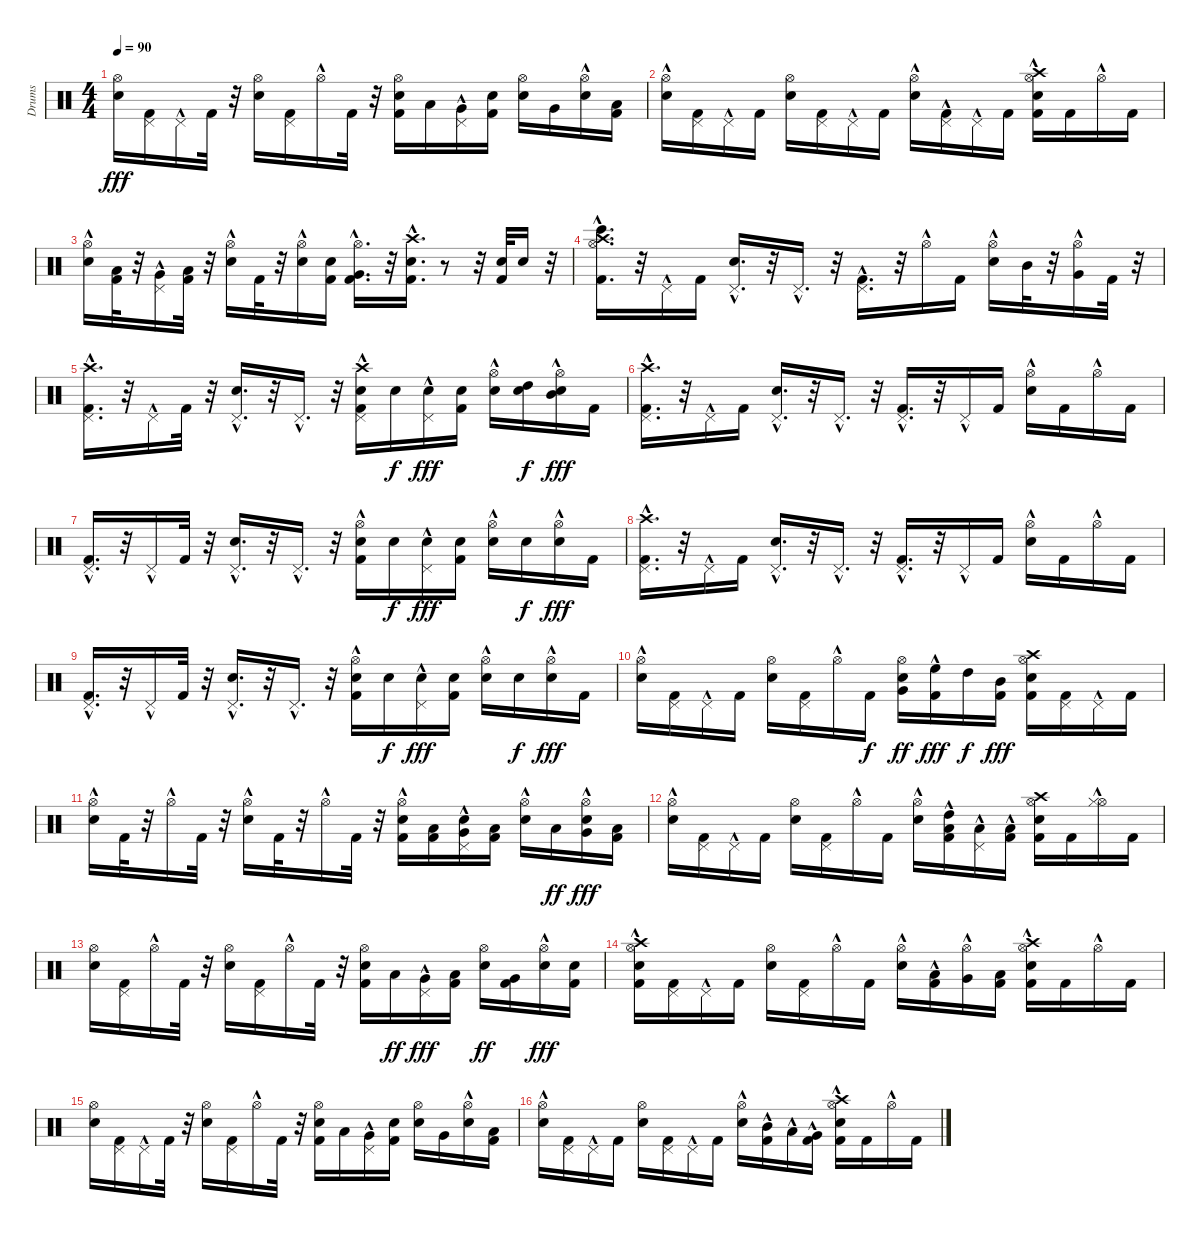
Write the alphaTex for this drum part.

\track ("Drums" "Drums") {instrument percussion}
\staff {score}
\articulation defaults
\ts (4 4)
\tempo 90
\clef neutral
\ks c
("Hi-Hat (open)" "Electric Snare (hit)").16{dy fff} ("Pedal Hi-Hat (hit)" "Kick (hit) 2").16 "Pedal Hi-Hat (hit)"{hac}.16 "Kick (hit) 2".32 r.32 ("Hi-Hat (open)" "Electric Snare (hit)").16 ("Pedal Hi-Hat (hit)" "Kick (hit) 2").16 "Hi-Hat (open)"{hac}.16 "Kick (hit) 2".32 r.32 ("Hi-Hat (open)" "Kick (hit) 2" "Electric Snare (hit)").16 "Low Tom (hit)".16 ("Pedal Hi-Hat (hit)"{hac} "Very Low Tom (hit)").16 ("Electric Snare (hit)" "Kick (hit) 2").16 ("Hi-Hat (open)" "Electric Snare (hit)").16 "Very Low Tom (hit)".16 ("Hi-Hat (open)"{hac} "Electric Snare (hit)").16 ("Low Floor Tom (hit)" "Kick (hit) 2").16 |
("Hi-Hat (open)" "Electric Snare (hit)"{hac}).16 ("Pedal Hi-Hat (hit)" "Kick (hit) 2").16 "Pedal Hi-Hat (hit)"{hac}.16 "Kick (hit) 2".16 ("Electric Snare (hit)" "Hi-Hat (open)").16 ("Pedal Hi-Hat (hit)" "Kick (hit) 2").16 "Pedal Hi-Hat (hit)"{hac}.16 "Kick (hit) 2".16 ("Electric Snare (hit)"{hac} "Hi-Hat (open)").16 ("Pedal Hi-Hat (hit)" "Kick (hit) 2"{hac}).16 "Pedal Hi-Hat (hit)"{hac}.16 "Kick (hit) 2".16 ("Kick (hit) 2" "Crash high (hit)" "Hi-Hat (open)"{hac} "Electric Snare (hit)").16 "Kick (hit) 2".16 "Hi-Hat (open)"{hac}.16 "Kick (hit) 2".16 |
("Hi-Hat (open)"{hac} "Electric Snare (hit)").16 ("Kick (hit) 2" "Low Tom (hit)").32 r.32 ("Very Low Tom (hit)" "Pedal Hi-Hat (hit)"{hac}).16 ("Kick (hit) 2" "Low Floor Tom (hit)").32 r.32 ("Hi-Hat (open)"{hac} "Electric Snare (hit)").16 "Kick (hit) 2".32 r.32 ("Electric Snare (hit)" "Hi-Hat (open)"{hac}).16 ("Electric Snare (hit)" "Kick (hit) 2").16 ("Hi-Hat (open)"{hac} "Very Low Tom (hit)" "Kick (hit) 2").16{d} r.32 ("Crash high (hit)"{hac} "Kick (hit) 2"{hac} "Electric Snare (hit)"{hac}).16{d} r.8 r.32 ("Kick (hit) 2" "Electric Snare (hit)").32 "Electric Snare (hit)".16 r.32 |
("Bongo High (hit)" "Crash high (hit)" "Kick (hit) 2"{hac} "Hi-Hat (open)"{hac}).16{d} r.32 "Pedal Hi-Hat (hit)"{hac}.16 "Kick (hit) 2".16 ("Electric Snare (hit)"{hac} "Pedal Hi-Hat (hit)"{hac}).16{d} r.32 "Pedal Hi-Hat (hit)"{hac}.16{d} r.32 ("Kick (hit) 2"{hac} "Pedal Hi-Hat (hit)"{hac}).16{d} r.32 "Hi-Hat (open)"{hac}.16 "Kick (hit) 2".16 ("Electric Snare (hit)" "Hi-Hat (open)"{hac}).16 "Mid Tom (hit)".32 r.32 ("Hi-Hat (open)"{hac} "Very Low Tom (hit)").16 "Kick (hit) 2".32 r.32 |
("Crash high (hit)" "Kick (hit) 2" "Pedal Hi-Hat (hit)"{hac}).16{d} r.32 "Pedal Hi-Hat (hit)"{hac}.16 "Kick (hit) 2".32 r.32 ("Electric Snare (hit)" "Pedal Hi-Hat (hit)"{hac}).16{d} r.32 "Pedal Hi-Hat (hit)"{hac}.16{d} r.32 ("Electric Snare (hit)" "Crash high (hit)" "Kick (hit) 2" "Pedal Hi-Hat (hit)"{hac}).16 "Electric Snare (hit)".16{dy f} ("Electric Snare (hit)" "Pedal Hi-Hat (hit)"{hac}).16{dy fff} ("Electric Snare (hit)" "Kick (hit) 2").16 ("Electric Snare (hit)" "Hi-Hat (open)"{hac}).16 ("High Tom (hit)" "Electric Snare (hit)").16{dy f} ("Mid Tom (hit)" "Electric Snare (hit)" "Hi-Hat (open)"{hac}).16{dy fff} "Kick (hit) 2".16 |
("Crash high (hit)" "Kick (hit) 2" "Pedal Hi-Hat (hit)"{hac}).16{d} r.32 "Pedal Hi-Hat (hit)"{hac}.16 "Kick (hit) 2".16 ("Electric Snare (hit)" "Pedal Hi-Hat (hit)"{hac}).16{d} r.32 "Pedal Hi-Hat (hit)"{hac}.16{d} r.32 ("Pedal Hi-Hat (hit)"{hac} "Kick (hit) 2"{hac}).16{d} r.32 "Pedal Hi-Hat (hit)"{hac}.16 "Kick (hit) 2".16 ("Hi-Hat (open)"{hac} "Electric Snare (hit)").16 "Kick (hit) 2".16 "Hi-Hat (open)"{hac}.16 "Kick (hit) 2".16 |
("Pedal Hi-Hat (hit)"{hac} "Kick (hit) 2").16{d} r.32 "Pedal Hi-Hat (hit)"{hac}.16 "Kick (hit) 2".32 r.32 ("Pedal Hi-Hat (hit)"{hac} "Electric Snare (hit)").16{d} r.32 "Pedal Hi-Hat (hit)"{hac}.16{d} r.32 ("Hi-Hat (open)"{hac} "Electric Snare (hit)" "Kick (hit) 2").16 "Electric Snare (hit)".16{dy f} ("Pedal Hi-Hat (hit)"{hac} "Electric Snare (hit)").16{dy fff} ("Electric Snare (hit)" "Kick (hit) 2").16 ("Hi-Hat (open)"{hac} "Electric Snare (hit)").16 "Electric Snare (hit)".16{dy f} ("Hi-Hat (open)"{hac} "Electric Snare (hit)").16{dy fff} "Kick (hit) 2".16 |
("Crash high (hit)" "Kick (hit) 2" "Pedal Hi-Hat (hit)"{hac}).16{d} r.32 "Pedal Hi-Hat (hit)"{hac}.16 "Kick (hit) 2".16 ("Electric Snare (hit)" "Pedal Hi-Hat (hit)"{hac}).16{d} r.32 "Pedal Hi-Hat (hit)"{hac}.16{d} r.32 ("Pedal Hi-Hat (hit)"{hac} "Kick (hit) 2"{hac}).16{d} r.32 "Pedal Hi-Hat (hit)"{hac}.16 "Kick (hit) 2".16 ("Hi-Hat (open)"{hac} "Electric Snare (hit)").16 "Kick (hit) 2".16 "Hi-Hat (open)"{hac}.16 "Kick (hit) 2".16 |
("Pedal Hi-Hat (hit)"{hac} "Kick (hit) 2").16{d} r.32 "Pedal Hi-Hat (hit)"{hac}.16 "Kick (hit) 2".32 r.32 ("Pedal Hi-Hat (hit)"{hac} "Electric Snare (hit)").16{d} r.32 "Pedal Hi-Hat (hit)"{hac}.16{d} r.32 ("Hi-Hat (open)"{hac} "Electric Snare (hit)" "Kick (hit) 2").16 "Electric Snare (hit)".16{dy f} ("Pedal Hi-Hat (hit)"{hac} "Electric Snare (hit)").16{dy fff} ("Electric Snare (hit)" "Kick (hit) 2").16 ("Hi-Hat (open)"{hac} "Electric Snare (hit)").16 "Electric Snare (hit)".16{dy f} ("Hi-Hat (open)"{hac} "Electric Snare (hit)").16{dy fff} "Kick (hit) 2".16 |
("Hi-Hat (open)" "Electric Snare (hit)"{hac}).16 ("Kick (hit) 2" "Pedal Hi-Hat (hit)").16 "Pedal Hi-Hat (hit)"{hac}.16 "Kick (hit) 2".16 ("Electric Snare (hit)" "Hi-Hat (open)").16 ("Kick (hit) 2" "Pedal Hi-Hat (hit)").16 "Hi-Hat (open)"{hac}.16 "Kick (hit) 2".16{dy f} ("Electric Snare (hit)" "Hi-Hat (open)" "Very Low Tom (hit)").16{dy ff} ("Kick (hit) 2"{hac} "High Floor Tom (hit)").16{dy fff} "High Tom (hit)".16{dy f} ("Kick (hit) 2" "Mid Tom (hit)").16{dy fff} ("Kick (hit) 2" "Crash high (hit)" "Hi-Hat (open)" "Electric Snare (hit)").16 ("Kick (hit) 2" "Pedal Hi-Hat (hit)").16 "Pedal Hi-Hat (hit)"{hac}.16 "Kick (hit) 2".16 |
("Hi-Hat (open)"{hac} "Electric Snare (hit)").16 "Kick (hit) 2".32 r.32 "Hi-Hat (open)"{hac}.16 "Kick (hit) 2".32 r.32 ("Hi-Hat (open)"{hac} "Electric Snare (hit)").16 "Kick (hit) 2".32 r.32 "Hi-Hat (open)"{hac}.16 "Kick (hit) 2".32 r.32 ("Hi-Hat (open)"{hac} "Electric Snare (hit)" "Kick (hit) 2").16 ("Low Tom (hit)" "Kick (hit) 2").16 ("Electric Snare (hit)" "Pedal Hi-Hat (hit)"{hac} "Very Low Tom (hit)").16 ("Low Floor Tom (hit)" "Kick (hit) 2").16 ("Hi-Hat (open)"{hac} "Electric Snare (hit)").16 "Low Tom (hit)".16{dy ff} ("Electric Snare (hit)" "Hi-Hat (open)"{hac} "Very Low Tom (hit)").16{dy fff} ("Low Floor Tom (hit)" "Kick (hit) 2").16 |
("Hi-Hat (open)" "Electric Snare (hit)"{hac}).16 ("Pedal Hi-Hat (hit)" "Kick (hit) 2").16 "Pedal Hi-Hat (hit)"{hac}.16 "Kick (hit) 2".16 ("Electric Snare (hit)" "Hi-Hat (open)").16 ("Pedal Hi-Hat (hit)" "Kick (hit) 2").16 "Hi-Hat (open)"{hac}.16 "Kick (hit) 2".16 ("Electric Snare (hit)"{hac} "Hi-Hat (open)").16 ("High Tom (hit)"{hac} "Low Tom (hit)" "Kick (hit) 2"{hac}).16 ("Low Tom (hit)"{hac} "Pedal Hi-Hat (hit)"{hac}).16 ("Low Floor Tom (hit)"{hac} "Kick (hit) 2").16 ("Kick (hit) 2" "Crash high (hit)" "Hi-Hat (open)" "Electric Snare (hit)").16 "Kick (hit) 2".16 ("Hi-Hat (open)"{hac} "Hi-Hat (closed)"{hac}).16 "Kick (hit) 2".16 |
("Hi-Hat (open)" "Electric Snare (hit)").16 ("Pedal Hi-Hat (hit)" "Kick (hit) 2").16 "Hi-Hat (open)"{hac}.16 "Kick (hit) 2".32 r.32 ("Hi-Hat (open)" "Electric Snare (hit)").16 ("Pedal Hi-Hat (hit)" "Kick (hit) 2").16 "Hi-Hat (open)"{hac}.16 "Kick (hit) 2".32 r.32 ("Hi-Hat (open)" "Electric Snare (hit)" "Kick (hit) 2").16 "Low Tom (hit)".16{dy ff} ("Pedal Hi-Hat (hit)"{hac} "Very Low Tom (hit)").16{dy fff} ("Low Floor Tom (hit)" "Kick (hit) 2").16 ("Hi-Hat (open)" "Electric Snare (hit)").16{dy ff} ("Kick (hit) 2" "Very Low Tom (hit)").16 ("Hi-Hat (open)"{hac} "Electric Snare (hit)").16{dy fff} ("Electric Snare (hit)" "Kick (hit) 2").16 |
("Kick (hit) 2" "Crash high (hit)" "Hi-Hat (open)" "Electric Snare (hit)"{hac}).16 ("Pedal Hi-Hat (hit)" "Kick (hit) 2").16 "Pedal Hi-Hat (hit)"{hac}.16 "Kick (hit) 2".16 ("Electric Snare (hit)" "Hi-Hat (open)").16 ("Pedal Hi-Hat (hit)" "Kick (hit) 2").16 "Hi-Hat (open)"{hac}.16 "Kick (hit) 2".16 ("Electric Snare (hit)"{hac} "Hi-Hat (open)").16 ("Low Tom (hit)" "Kick (hit) 2"{hac}).16 ("Hi-Hat (open)"{hac} "Very Low Tom (hit)").16 ("Low Floor Tom (hit)" "Kick (hit) 2").16 ("Kick (hit) 2" "Crash high (hit)" "Hi-Hat (open)"{hac} "Electric Snare (hit)").16 "Kick (hit) 2".16 "Hi-Hat (open)"{hac}.16 "Kick (hit) 2".16 |
("Hi-Hat (open)" "Electric Snare (hit)").16 ("Pedal Hi-Hat (hit)" "Kick (hit) 2").16 "Pedal Hi-Hat (hit)"{hac}.16 "Kick (hit) 2".32 r.32 ("Hi-Hat (open)" "Electric Snare (hit)").16 ("Pedal Hi-Hat (hit)" "Kick (hit) 2").16 "Hi-Hat (open)"{hac}.16 "Kick (hit) 2".32 r.32 ("Hi-Hat (open)" "Kick (hit) 2" "Electric Snare (hit)").16 "Low Tom (hit)".16 ("Pedal Hi-Hat (hit)"{hac} "Very Low Tom (hit)").16 ("Electric Snare (hit)" "Kick (hit) 2").16 ("Hi-Hat (open)" "Electric Snare (hit)").16 "Very Low Tom (hit)".16 ("Hi-Hat (open)"{hac} "Electric Snare (hit)").16 ("Low Floor Tom (hit)" "Kick (hit) 2").16 |
("Hi-Hat (open)" "Electric Snare (hit)"{hac}).16 ("Pedal Hi-Hat (hit)" "Kick (hit) 2").16 "Pedal Hi-Hat (hit)"{hac}.16 "Kick (hit) 2".16 ("Electric Snare (hit)" "Hi-Hat (open)").16 ("Pedal Hi-Hat (hit)" "Kick (hit) 2").16 "Pedal Hi-Hat (hit)"{hac}.16 "Kick (hit) 2".16 ("Electric Snare (hit)"{hac} "Hi-Hat (open)").16 ("Mid Tom (hit)" "Kick (hit) 2"{hac}).16 "Low Tom (hit)"{hac}.16 ("Very Low Tom (hit)"{hac} "Kick (hit) 2").16 ("Kick (hit) 2" "Crash high (hit)" "Hi-Hat (open)"{hac} "Electric Snare (hit)").16 "Kick (hit) 2".16 "Hi-Hat (open)"{hac}.16 "Kick (hit) 2".16
